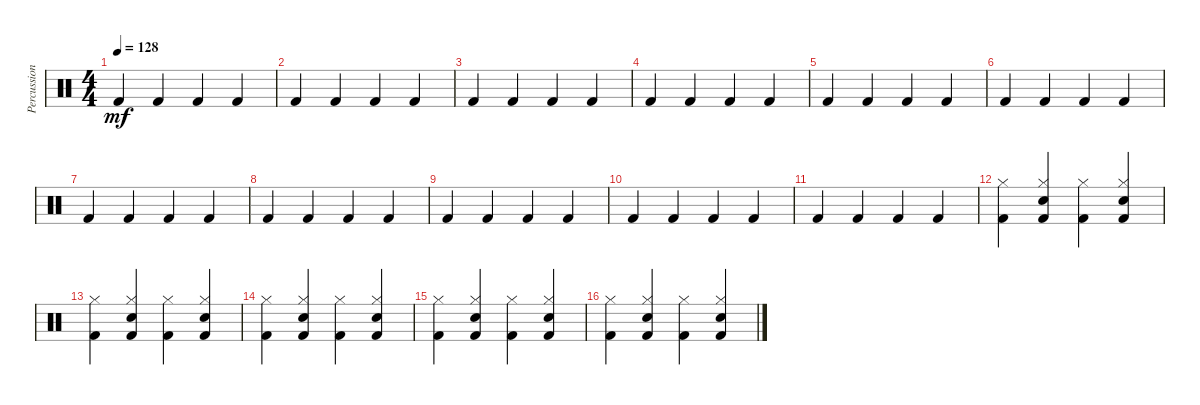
\track ("Percussions" "Percussion") {instrument percussion}
\staff {score}
\articulation defaults
\ts (4 4)
\tempo 128
\clef neutral
\ks c "Kick (hit) 2".4{dy mf} "Kick (hit) 2".4 "Kick (hit) 2".4 "Kick (hit) 2".4
|
"Kick (hit) 2".4 "Kick (hit) 2".4 "Kick (hit) 2".4 "Kick (hit) 2".4 |
"Kick (hit) 2".4 "Kick (hit) 2".4 "Kick (hit) 2".4 "Kick (hit) 2".4 |
"Kick (hit) 2".4 "Kick (hit) 2".4 "Kick (hit) 2".4 "Kick (hit) 2".4 |
"Kick (hit) 2".4 "Kick (hit) 2".4 "Kick (hit) 2".4 "Kick (hit) 2".4 |
"Kick (hit) 2".4 "Kick (hit) 2".4 "Kick (hit) 2".4 "Kick (hit) 2".4 |
"Kick (hit) 2".4 "Kick (hit) 2".4 "Kick (hit) 2".4 "Kick (hit) 2".4 |
"Kick (hit) 2".4 "Kick (hit) 2".4 "Kick (hit) 2".4 "Kick (hit) 2".4 |
"Kick (hit) 2".4 "Kick (hit) 2".4 "Kick (hit) 2".4 "Kick (hit) 2".4 |
"Kick (hit) 2".4 "Kick (hit) 2".4 "Kick (hit) 2".4 "Kick (hit) 2".4 |
"Kick (hit) 2".4 "Kick (hit) 2".4 "Kick (hit) 2".4 "Kick (hit) 2".4 |
("Kick (hit) 2" "Hi-Hat (closed)").4 ("Kick (hit) 2" "Hi-Hat (closed)" "Snare (hit) 2").4 ("Kick (hit) 2" "Hi-Hat (closed)").4 ("Kick (hit) 2" "Hi-Hat (closed)" "Snare (hit) 2").4 |
("Kick (hit) 2" "Hi-Hat (closed)").4 ("Kick (hit) 2" "Hi-Hat (closed)" "Snare (hit) 2").4 ("Kick (hit) 2" "Hi-Hat (closed)").4 ("Kick (hit) 2" "Hi-Hat (closed)" "Snare (hit) 2").4 |
("Kick (hit) 2" "Hi-Hat (closed)").4 ("Kick (hit) 2" "Hi-Hat (closed)" "Snare (hit) 2").4 ("Kick (hit) 2" "Hi-Hat (closed)").4 ("Kick (hit) 2" "Hi-Hat (closed)" "Snare (hit) 2").4 |
("Kick (hit) 2" "Hi-Hat (closed)").4 ("Kick (hit) 2" "Hi-Hat (closed)" "Snare (hit) 2").4 ("Kick (hit) 2" "Hi-Hat (closed)").4 ("Kick (hit) 2" "Hi-Hat (closed)" "Snare (hit) 2").4 |
("Kick (hit) 2" "Hi-Hat (closed)").4 ("Kick (hit) 2" "Hi-Hat (closed)" "Snare (hit) 2").4 ("Kick (hit) 2" "Hi-Hat (closed)").4 ("Kick (hit) 2" "Hi-Hat (closed)" "Snare (hit) 2").4
